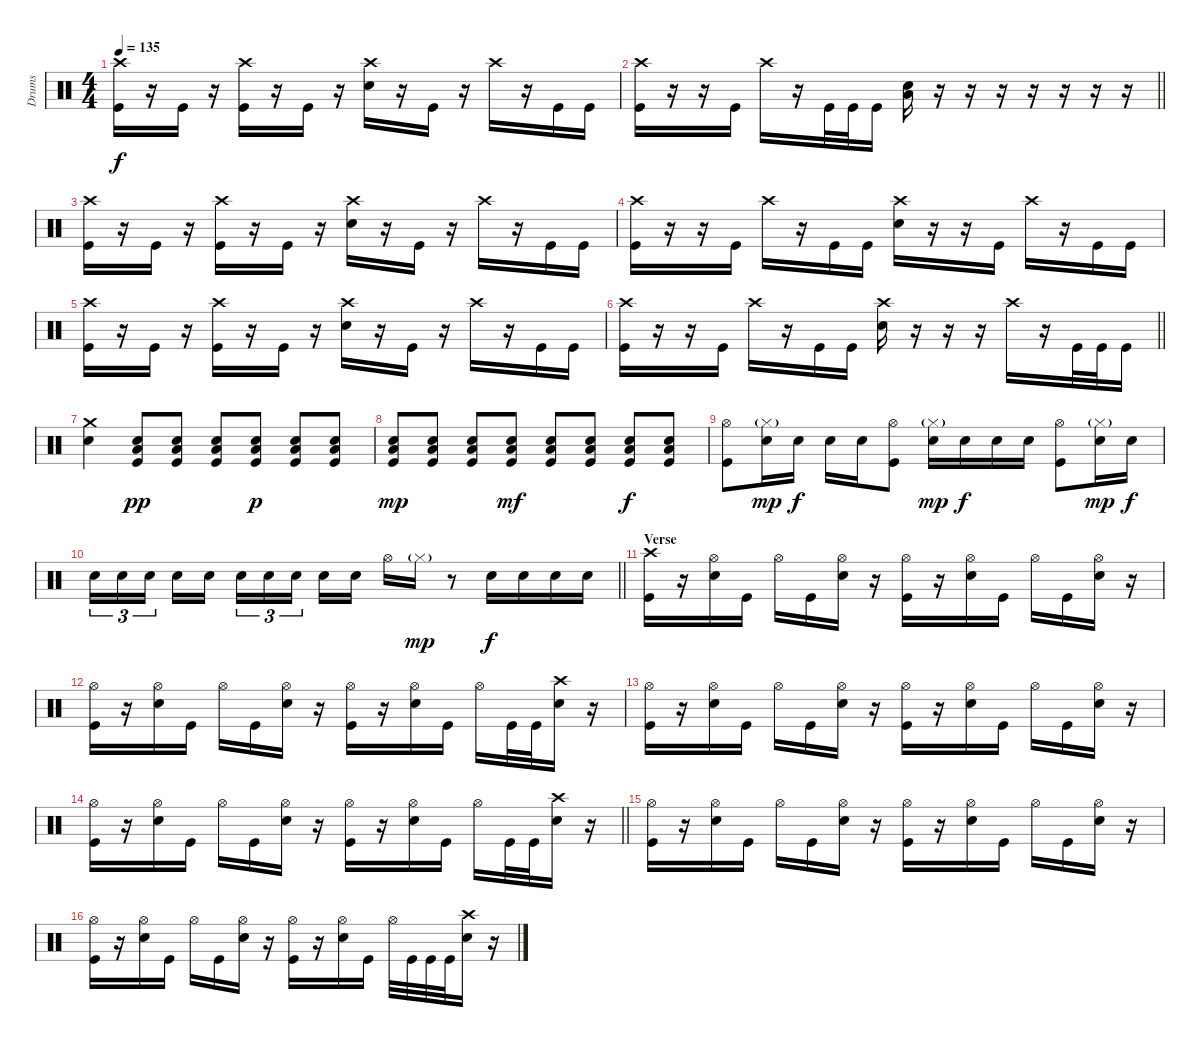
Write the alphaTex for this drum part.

\track ("Drums" "Drums") {instrument percussion}
\staff {score}
\articulation defaults
\ts (4 4)
\tempo 135
\clef neutral
\ks c
("Crash high (hit)" "Kick (hit)").16{dy f} r.16 "Kick (hit)".16 r.16 ("Crash high (hit)" "Kick (hit)").16 r.16 "Kick (hit)".16 r.16 ("Crash high (hit)" "Snare (hit) 2").16 r.16 "Kick (hit)".16 r.16 "Crash high (hit)".16 r.16 "Kick (hit)".16 "Kick (hit)".16 |
\barLineRight lightlight
("Crash high (hit)" "Kick (hit)").16 r.16 r.16 "Kick (hit)".16 "Crash high (hit)".16 r.16 "Kick (hit)".32 "Kick (hit)".32 "Kick (hit)".16 ("Low Floor Tom (hit)" "Snare (hit) 2").16 r.16 r.16 r.16 r.16 r.16 r.16 r.16 |
("Crash high (hit)" "Kick (hit)").16 r.16 "Kick (hit)".16 r.16 ("Crash high (hit)" "Kick (hit)").16 r.16 "Kick (hit)".16 r.16 ("Crash high (hit)" "Snare (hit) 2").16 r.16 "Kick (hit)".16 r.16 "Crash high (hit)".16 r.16 "Kick (hit)".16 "Kick (hit)".16 |
("Crash high (hit)" "Kick (hit)").16 r.16 r.16 "Kick (hit)".16 "Crash high (hit)".16 r.16 "Kick (hit)".16 "Kick (hit)".16 ("Crash high (hit)" "Snare (hit) 2").16 r.16 r.16 "Kick (hit)".16 "Crash high (hit)".16 r.16 "Kick (hit)".16 "Kick (hit)".16 |
("Crash high (hit)" "Kick (hit)").16 r.16 "Kick (hit)".16 r.16 ("Crash high (hit)" "Kick (hit)").16 r.16 "Kick (hit)".16 r.16 ("Crash high (hit)" "Snare (hit) 2").16 r.16 "Kick (hit)".16 r.16 "Crash high (hit)".16 r.16 "Kick (hit)".16 "Kick (hit)".16 |
\barLineRight lightlight
("Crash high (hit)" "Kick (hit)").16 r.16 r.16 "Kick (hit)".16 "Crash high (hit)".16 r.16 "Kick (hit)".16 "Kick (hit)".16 ("Crash high (hit)" "Snare (hit) 2").16 r.16 r.16 r.16 "Crash high (hit)".16 r.16 "Kick (hit)".32 "Kick (hit)".32 "Kick (hit)".16 |
("Crash medium (hit)" "Snare (hit) 2").4 ("Low Floor Tom (hit)" "Snare (hit) 2" "Kick (hit)").8{dy pp} ("Low Floor Tom (hit)" "Snare (hit) 2" "Kick (hit)").8 ("Low Floor Tom (hit)" "Snare (hit) 2" "Kick (hit)").8 ("Low Floor Tom (hit)" "Snare (hit) 2" "Kick (hit)").8{dy p} ("Low Floor Tom (hit)" "Snare (hit) 2" "Kick (hit)").8 ("Low Floor Tom (hit)" "Snare (hit) 2" "Kick (hit)").8 |
("Low Floor Tom (hit)" "Snare (hit) 2" "Kick (hit)").8{dy mp} ("Low Floor Tom (hit)" "Snare (hit) 2" "Kick (hit)").8 ("Low Floor Tom (hit)" "Snare (hit) 2" "Kick (hit)").8 ("Low Floor Tom (hit)" "Snare (hit) 2" "Kick (hit)").8{dy mf} ("Low Floor Tom (hit)" "Snare (hit) 2" "Kick (hit)").8 ("Low Floor Tom (hit)" "Snare (hit) 2" "Kick (hit)").8 ("Low Floor Tom (hit)" "Snare (hit) 2" "Kick (hit)").8{dy f} ("Low Floor Tom (hit)" "Snare (hit) 2" "Kick (hit)").8 |
("Hi-Hat (open)" "Kick (hit)").8 ("Hi-Hat (closed)"{g} "Snare (hit) 2").16{dy mp} "Snare (hit) 2".16{dy f} "Snare (hit) 2".16 "Snare (hit) 2".16 ("Hi-Hat (open)" "Kick (hit)").8 ("Hi-Hat (closed)"{g} "Snare (hit) 2").16{dy mp} "Snare (hit) 2".16{dy f} "Snare (hit) 2".16 "Snare (hit) 2".16 ("Hi-Hat (open)" "Kick (hit)").8 ("Hi-Hat (closed)"{g} "Snare (hit) 2").16{dy mp} "Snare (hit) 2".16{dy f} |
\barLineRight lightlight "Snare (hit) 2".16{tu (3 2)} "Snare (hit) 2".16{tu (3 2)} "Snare (hit) 2".16{tu (3 2)} "Snare (hit) 2".16 "Snare (hit) 2".16 "Snare (hit) 2".16{tu (3 2)} "Snare (hit) 2".16{tu (3 2)} "Snare (hit) 2".16{tu (3 2)} "Snare (hit) 2".16 "Snare (hit) 2".16 "Hi-Hat (open)".16 "Hi-Hat (closed)"{g}.16{dy mp}
r.8 "Snare (hit) 2".16{dy f} "Snare (hit) 2".16 "Snare (hit) 2".16 "Snare (hit) 2".16 |
\section ("" "Verse")
("Crash high (hit)" "Kick (hit)").16 r.16 ("Hi-Hat (open)" "Snare (hit) 2").16 "Kick (hit)".16 "Hi-Hat (open)".16 "Kick (hit)".16 ("Hi-Hat (open)" "Snare (hit) 2").16 r.16 ("Hi-Hat (open)" "Kick (hit)").16 r.16 ("Hi-Hat (open)" "Snare (hit) 2").16 "Kick (hit)".16 "Hi-Hat (open)".16 "Kick (hit)".16 ("Hi-Hat (open)" "Snare (hit) 2").16 r.16 |
("Hi-Hat (open)" "Kick (hit)").16 r.16 ("Hi-Hat (open)" "Snare (hit) 2").16 "Kick (hit)".16 "Hi-Hat (open)".16 "Kick (hit)".16 ("Hi-Hat (open)" "Snare (hit) 2").16 r.16 ("Hi-Hat (open)" "Kick (hit)").16 r.16 ("Hi-Hat (open)" "Snare (hit) 2").16 "Kick (hit)".16 "Hi-Hat (open)".16 "Kick (hit)".32 "Kick (hit)".32 ("Crash high (hit)" "Snare (hit) 2").16 r.16 |
("Hi-Hat (open)" "Kick (hit)").16 r.16 ("Hi-Hat (open)" "Snare (hit) 2").16 "Kick (hit)".16 "Hi-Hat (open)".16 "Kick (hit)".16 ("Hi-Hat (open)" "Snare (hit) 2").16 r.16 ("Hi-Hat (open)" "Kick (hit)").16 r.16 ("Hi-Hat (open)" "Snare (hit) 2").16 "Kick (hit)".16 "Hi-Hat (open)".16 "Kick (hit)".16 ("Hi-Hat (open)" "Snare (hit) 2").16 r.16 |
\barLineRight lightlight
("Hi-Hat (open)" "Kick (hit)").16 r.16 ("Hi-Hat (open)" "Snare (hit) 2").16 "Kick (hit)".16 "Hi-Hat (open)".16 "Kick (hit)".16 ("Hi-Hat (open)" "Snare (hit) 2").16 r.16 ("Hi-Hat (open)" "Kick (hit)").16 r.16 ("Hi-Hat (open)" "Snare (hit) 2").16 "Kick (hit)".16 "Hi-Hat (open)".16 "Kick (hit)".32 "Kick (hit)".32 ("Crash high (hit)" "Snare (hit) 2").16 r.16 |
("Hi-Hat (open)" "Kick (hit)").16 r.16 ("Hi-Hat (open)" "Snare (hit) 2").16 "Kick (hit)".16 "Hi-Hat (open)".16 "Kick (hit)".16 ("Hi-Hat (open)" "Snare (hit) 2").16 r.16 ("Hi-Hat (open)" "Kick (hit)").16 r.16 ("Hi-Hat (open)" "Snare (hit) 2").16 "Kick (hit)".16 "Hi-Hat (open)".16 "Kick (hit)".16 ("Hi-Hat (open)" "Snare (hit) 2").16 r.16 |
("Hi-Hat (open)" "Kick (hit)").16 r.16 ("Hi-Hat (open)" "Snare (hit) 2").16 "Kick (hit)".16 "Hi-Hat (open)".16 "Kick (hit)".16 ("Hi-Hat (open)" "Snare (hit) 2").16 r.16 ("Hi-Hat (open)" "Kick (hit)").16 r.16 ("Hi-Hat (open)" "Snare (hit) 2").16 "Kick (hit)".16 "Hi-Hat (open)".32 "Kick (hit)".32 "Kick (hit)".32 "Kick (hit)".32 ("Crash high (hit)" "Snare (hit) 2").16 r.16
